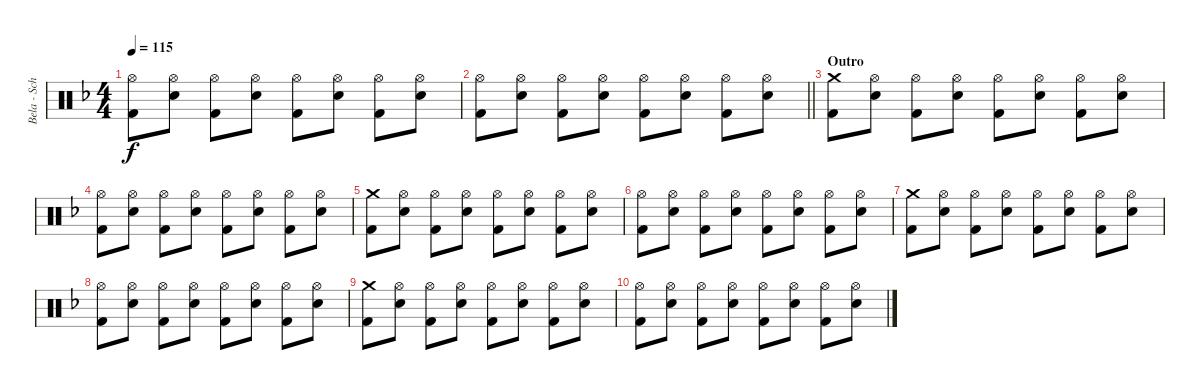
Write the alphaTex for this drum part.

\track ("Bela - Schlagzeug" "Bela - Sch") {instrument percussion}
\staff {score}
\articulation defaults
\ts (4 4)
\tempo 115
\clef neutral
\ks f
("Hi-Hat (open)" "Kick (hit) 2").8{dy f} ("Hi-Hat (open)" "Snare (hit) 2").8 ("Hi-Hat (open)" "Kick (hit) 2").8 ("Hi-Hat (open)" "Snare (hit) 2").8 ("Hi-Hat (open)" "Kick (hit) 2").8 ("Hi-Hat (open)" "Snare (hit) 2").8 ("Hi-Hat (open)" "Kick (hit) 2").8 ("Hi-Hat (open)" "Snare (hit) 2").8 |
\barLineRight lightlight
("Hi-Hat (open)" "Kick (hit) 2").8 ("Hi-Hat (open)" "Snare (hit) 2").8 ("Hi-Hat (open)" "Kick (hit) 2").8 ("Hi-Hat (open)" "Snare (hit) 2").8 ("Hi-Hat (open)" "Kick (hit) 2").8 ("Hi-Hat (open)" "Snare (hit) 2").8 ("Hi-Hat (open)" "Kick (hit) 2").8 ("Hi-Hat (open)" "Snare (hit) 2").8 |
\section ("" "Outro")
("Crash medium (hit)" "Kick (hit) 2").8 ("Hi-Hat (open)" "Snare (hit) 2").8 ("Hi-Hat (open)" "Kick (hit) 2").8 ("Hi-Hat (open)" "Snare (hit) 2").8 ("Hi-Hat (open)" "Kick (hit) 2").8 ("Hi-Hat (open)" "Snare (hit) 2").8 ("Hi-Hat (open)" "Kick (hit) 2").8 ("Hi-Hat (open)" "Snare (hit) 2").8 |
("Hi-Hat (open)" "Kick (hit) 2").8 ("Hi-Hat (open)" "Snare (hit) 2").8 ("Hi-Hat (open)" "Kick (hit) 2").8 ("Hi-Hat (open)" "Snare (hit) 2").8 ("Hi-Hat (open)" "Kick (hit) 2").8 ("Hi-Hat (open)" "Snare (hit) 2").8 ("Hi-Hat (open)" "Kick (hit) 2").8 ("Hi-Hat (open)" "Snare (hit) 2").8 |
("Crash medium (hit)" "Kick (hit) 2").8 ("Hi-Hat (open)" "Snare (hit) 2").8 ("Hi-Hat (open)" "Kick (hit) 2").8 ("Hi-Hat (open)" "Snare (hit) 2").8 ("Hi-Hat (open)" "Kick (hit) 2").8 ("Hi-Hat (open)" "Snare (hit) 2").8 ("Hi-Hat (open)" "Kick (hit) 2").8 ("Hi-Hat (open)" "Snare (hit) 2").8 |
("Hi-Hat (open)" "Kick (hit) 2").8 ("Hi-Hat (open)" "Snare (hit) 2").8 ("Hi-Hat (open)" "Kick (hit) 2").8 ("Hi-Hat (open)" "Snare (hit) 2").8 ("Hi-Hat (open)" "Kick (hit) 2").8 ("Hi-Hat (open)" "Snare (hit) 2").8 ("Hi-Hat (open)" "Kick (hit) 2").8 ("Hi-Hat (open)" "Snare (hit) 2").8 |
("Crash medium (hit)" "Kick (hit) 2").8 ("Hi-Hat (open)" "Snare (hit) 2").8 ("Hi-Hat (open)" "Kick (hit) 2").8 ("Hi-Hat (open)" "Snare (hit) 2").8 ("Hi-Hat (open)" "Kick (hit) 2").8 ("Hi-Hat (open)" "Snare (hit) 2").8 ("Hi-Hat (open)" "Kick (hit) 2").8 ("Hi-Hat (open)" "Snare (hit) 2").8 |
("Hi-Hat (open)" "Kick (hit) 2").8 ("Hi-Hat (open)" "Snare (hit) 2").8 ("Hi-Hat (open)" "Kick (hit) 2").8 ("Hi-Hat (open)" "Snare (hit) 2").8 ("Hi-Hat (open)" "Kick (hit) 2").8 ("Hi-Hat (open)" "Snare (hit) 2").8 ("Hi-Hat (open)" "Kick (hit) 2").8 ("Hi-Hat (open)" "Snare (hit) 2").8 |
("Crash medium (hit)" "Kick (hit) 2").8 ("Hi-Hat (open)" "Snare (hit) 2").8 ("Hi-Hat (open)" "Kick (hit) 2").8 ("Hi-Hat (open)" "Snare (hit) 2").8 ("Hi-Hat (open)" "Kick (hit) 2").8 ("Hi-Hat (open)" "Snare (hit) 2").8 ("Hi-Hat (open)" "Kick (hit) 2").8 ("Hi-Hat (open)" "Snare (hit) 2").8 |
("Hi-Hat (open)" "Kick (hit) 2").8 ("Hi-Hat (open)" "Snare (hit) 2").8 ("Hi-Hat (open)" "Kick (hit) 2").8 ("Hi-Hat (open)" "Snare (hit) 2").8 ("Hi-Hat (open)" "Kick (hit) 2").8 ("Hi-Hat (open)" "Snare (hit) 2").8 ("Hi-Hat (open)" "Kick (hit) 2").8 ("Hi-Hat (open)" "Snare (hit) 2").8
